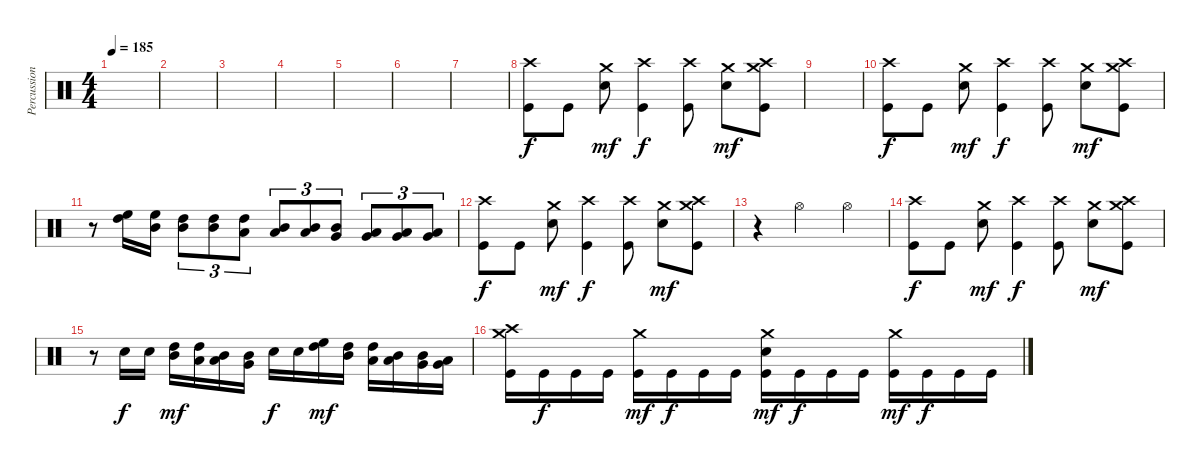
\track ("Percussions" "Percussion") {instrument percussion}
\staff {score}
\articulation defaults
\ts (4 4)
\tempo 185
\clef neutral
\ks c
|
|
|
|
|
|
|
("Kick (hit)" "Crash high (hit)").8 "Kick (hit)".8 ("Electric Snare (hit)" "Crash medium (hit)").8{dy mf} ("Kick (hit)" "Crash high (hit)").4{dy f} ("Kick (hit)" "Crash high (hit)").8 ("Electric Snare (hit)" "Crash medium (hit)").8{dy mf} ("Kick (hit)" "Crash high (hit)" "Crash medium (hit)").8 |
|
("Kick (hit)" "Crash high (hit)").8{dy f} "Kick (hit)".8 ("Electric Snare (hit)" "Crash medium (hit)").8{dy mf} ("Kick (hit)" "Crash high (hit)").4{dy f} ("Kick (hit)" "Crash high (hit)").8 ("Electric Snare (hit)" "Crash medium (hit)").8{dy mf} ("Kick (hit)" "Crash high (hit)" "Crash medium (hit)").8 |
r.8 ("High Tom (hit)" "High Floor Tom (hit)").16 ("Mid Tom (hit)" "High Floor Tom (hit)").16 ("Mid Tom (hit)" "High Tom (hit)").8{tu (3 2)} ("Mid Tom (hit)" "High Tom (hit)").8{tu (3 2)} ("Low Tom (hit)" "High Tom (hit)").8{tu (3 2)} ("Low Tom (hit)" "Mid Tom (hit)").8{tu (3 2)} ("Low Tom (hit)" "Mid Tom (hit)").8{tu (3 2)} ("Very Low Tom (hit)" "Mid Tom (hit)").8{tu (3 2)} ("Very Low Tom (hit)" "Low Tom (hit)").8{tu (3 2)} ("Very Low Tom (hit)" "Low Tom (hit)").8{tu (3 2)} ("Low Floor Tom (hit)" "Very Low Tom (hit)").8{tu (3 2)} |
("Kick (hit)" "Crash high (hit)").8{dy f} "Kick (hit)".8 ("Electric Snare (hit)" "Crash medium (hit)").8{dy mf} ("Kick (hit)" "Crash high (hit)").4{dy f} ("Kick (hit)" "Crash high (hit)").8 ("Electric Snare (hit)" "Crash medium (hit)").8{dy mf} ("Kick (hit)" "Crash high (hit)" "Crash medium (hit)").8 |
r.4 "Hi-Hat (open)".2 "Hi-Hat (open)".4 |
("Kick (hit)" "Crash high (hit)").8{dy f} "Kick (hit)".8 ("Electric Snare (hit)" "Crash medium (hit)").8{dy mf} ("Kick (hit)" "Crash high (hit)").4{dy f} ("Kick (hit)" "Crash high (hit)").8 ("Electric Snare (hit)" "Crash medium (hit)").8{dy mf} ("Kick (hit)" "Crash high (hit)" "Crash medium (hit)").8 |
r.8 "Electric Snare (hit)".16{dy f} "Electric Snare (hit)".16 ("Mid Tom (hit)" "High Tom (hit)").16{dy mf} ("Low Tom (hit)" "High Tom (hit)").16 ("Low Tom (hit)" "Mid Tom (hit)").16 ("Very Low Tom (hit)" "Mid Tom (hit)").16 "Electric Snare (hit)".16{dy f} "Electric Snare (hit)".16 ("High Tom (hit)" "High Floor Tom (hit)").16{dy mf} ("Mid Tom (hit)" "High Tom (hit)").16 ("Low Tom (hit)" "High Tom (hit)").16 ("Low Tom (hit)" "Mid Tom (hit)").16 ("Very Low Tom (hit)" "Mid Tom (hit)").16 ("Very Low Tom (hit)" "Low Tom (hit)").16 |
("Kick (hit)" "Crash medium (hit)" "Crash high (hit)").16 "Kick (hit)".16{dy f} "Kick (hit)".16 "Kick (hit)".16 ("Kick (hit)" "Crash medium (hit)").16{dy mf} "Kick (hit)".16{dy f} "Kick (hit)".16 "Kick (hit)".16 ("Kick (hit)" "Electric Snare (hit)" "Crash medium (hit)").16{dy mf} "Kick (hit)".16{dy f} "Kick (hit)".16 "Kick (hit)".16 ("Kick (hit)" "Crash medium (hit)").16{dy mf} "Kick (hit)".16{dy f} "Kick (hit)".16 "Kick (hit)".16
